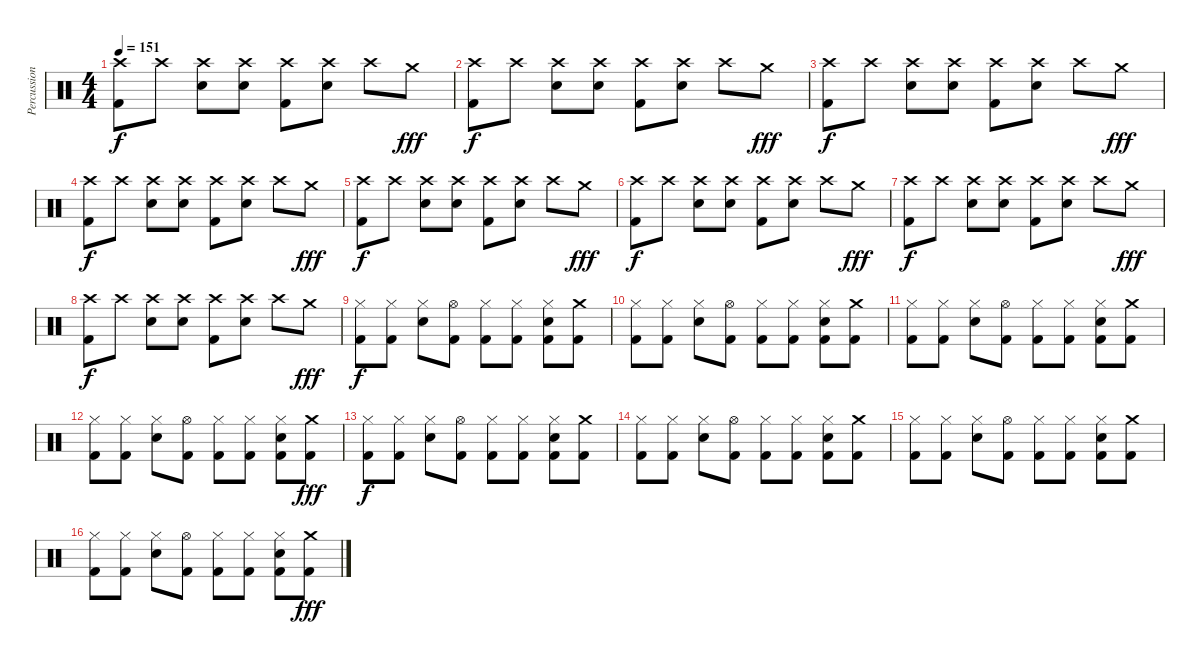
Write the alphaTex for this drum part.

\track ("Percussion" "Percussion") {instrument percussion bank 1}
\staff {score}
\articulation defaults
\ts (4 4)
\tempo 151
\clef neutral
\ks c
("Crash high (hit)" "Kick (hit) 2").8{dy f} "Crash high (hit)".8 ("Snare (hit) 2" "Crash high (hit)").8 ("Snare (hit) 2" "Crash high (hit)").8 ("Crash high (hit)" "Kick (hit) 2").8 ("Snare (hit) 2" "Crash high (hit)").8 "Crash high (hit)".8 "Crash medium (hit)".8{dy fff} |
("Crash high (hit)" "Kick (hit) 2").8{dy f} "Crash high (hit)".8 ("Snare (hit) 2" "Crash high (hit)").8 ("Snare (hit) 2" "Crash high (hit)").8 ("Crash high (hit)" "Kick (hit) 2").8 ("Snare (hit) 2" "Crash high (hit)").8 "Crash high (hit)".8 "Crash medium (hit)".8{dy fff} |
("Crash high (hit)" "Kick (hit) 2").8{dy f} "Crash high (hit)".8 ("Snare (hit) 2" "Crash high (hit)").8 ("Snare (hit) 2" "Crash high (hit)").8 ("Crash high (hit)" "Kick (hit) 2").8 ("Snare (hit) 2" "Crash high (hit)").8 "Crash high (hit)".8 "Crash medium (hit)".8{dy fff} |
("Crash high (hit)" "Kick (hit) 2").8{dy f} "Crash high (hit)".8 ("Snare (hit) 2" "Crash high (hit)").8 ("Snare (hit) 2" "Crash high (hit)").8 ("Crash high (hit)" "Kick (hit) 2").8 ("Snare (hit) 2" "Crash high (hit)").8 "Crash high (hit)".8 "Crash medium (hit)".8{dy fff} |
("Crash high (hit)" "Kick (hit) 2").8{dy f} "Crash high (hit)".8 ("Snare (hit) 2" "Crash high (hit)").8 ("Snare (hit) 2" "Crash high (hit)").8 ("Crash high (hit)" "Kick (hit) 2").8 ("Snare (hit) 2" "Crash high (hit)").8 "Crash high (hit)".8 "Crash medium (hit)".8{dy fff} |
("Crash high (hit)" "Kick (hit) 2").8{dy f} "Crash high (hit)".8 ("Snare (hit) 2" "Crash high (hit)").8 ("Snare (hit) 2" "Crash high (hit)").8 ("Crash high (hit)" "Kick (hit) 2").8 ("Snare (hit) 2" "Crash high (hit)").8 "Crash high (hit)".8 "Crash medium (hit)".8{dy fff} |
("Crash high (hit)" "Kick (hit) 2").8{dy f} "Crash high (hit)".8 ("Snare (hit) 2" "Crash high (hit)").8 ("Snare (hit) 2" "Crash high (hit)").8 ("Crash high (hit)" "Kick (hit) 2").8 ("Snare (hit) 2" "Crash high (hit)").8 "Crash high (hit)".8 "Crash medium (hit)".8{dy fff} |
("Crash high (hit)" "Kick (hit) 2").8{dy f} "Crash high (hit)".8 ("Snare (hit) 2" "Crash high (hit)").8 ("Snare (hit) 2" "Crash high (hit)").8 ("Crash high (hit)" "Kick (hit) 2").8 ("Snare (hit) 2" "Crash high (hit)").8 "Crash high (hit)".8 "Crash medium (hit)".8{dy fff} |
("Hi-Hat (closed)" "Kick (hit) 2").8{dy f} ("Hi-Hat (closed)" "Kick (hit) 2").8 ("Snare (hit) 2" "Hi-Hat (closed)").8 ("Hi-Hat (open)" "Kick (hit) 2").8 ("Hi-Hat (closed)" "Kick (hit) 2").8 ("Hi-Hat (closed)" "Kick (hit) 2").8 ("Snare (hit) 2" "Hi-Hat (closed)" "Kick (hit) 2").8 ("Crash medium (hit)" "Kick (hit) 2").8 |
("Hi-Hat (closed)" "Kick (hit) 2").8 ("Hi-Hat (closed)" "Kick (hit) 2").8 ("Snare (hit) 2" "Hi-Hat (closed)").8 ("Hi-Hat (open)" "Kick (hit) 2").8 ("Hi-Hat (closed)" "Kick (hit) 2").8 ("Hi-Hat (closed)" "Kick (hit) 2").8 ("Snare (hit) 2" "Hi-Hat (closed)" "Kick (hit) 2").8 ("Crash medium (hit)" "Kick (hit) 2").8 |
("Hi-Hat (closed)" "Kick (hit) 2").8 ("Hi-Hat (closed)" "Kick (hit) 2").8 ("Snare (hit) 2" "Hi-Hat (closed)").8 ("Hi-Hat (open)" "Kick (hit) 2").8 ("Hi-Hat (closed)" "Kick (hit) 2").8 ("Hi-Hat (closed)" "Kick (hit) 2").8 ("Snare (hit) 2" "Hi-Hat (closed)" "Kick (hit) 2").8 ("Crash medium (hit)" "Kick (hit) 2").8 |
("Hi-Hat (closed)" "Kick (hit) 2").8 ("Hi-Hat (closed)" "Kick (hit) 2").8 ("Snare (hit) 2" "Hi-Hat (closed)").8 ("Hi-Hat (open)" "Kick (hit) 2").8 ("Hi-Hat (closed)" "Kick (hit) 2").8 ("Hi-Hat (closed)" "Kick (hit) 2").8 ("Snare (hit) 2" "Hi-Hat (closed)" "Kick (hit) 2").8 ("Crash medium (hit)" "Kick (hit) 2").8{dy fff} |
("Hi-Hat (closed)" "Kick (hit) 2").8{dy f} ("Hi-Hat (closed)" "Kick (hit) 2").8 ("Snare (hit) 2" "Hi-Hat (closed)").8 ("Hi-Hat (open)" "Kick (hit) 2").8 ("Hi-Hat (closed)" "Kick (hit) 2").8 ("Hi-Hat (closed)" "Kick (hit) 2").8 ("Snare (hit) 2" "Hi-Hat (closed)" "Kick (hit) 2").8 ("Crash medium (hit)" "Kick (hit) 2").8 |
("Hi-Hat (closed)" "Kick (hit) 2").8 ("Hi-Hat (closed)" "Kick (hit) 2").8 ("Snare (hit) 2" "Hi-Hat (closed)").8 ("Hi-Hat (open)" "Kick (hit) 2").8 ("Hi-Hat (closed)" "Kick (hit) 2").8 ("Hi-Hat (closed)" "Kick (hit) 2").8 ("Snare (hit) 2" "Hi-Hat (closed)" "Kick (hit) 2").8 ("Crash medium (hit)" "Kick (hit) 2").8 |
("Hi-Hat (closed)" "Kick (hit) 2").8 ("Hi-Hat (closed)" "Kick (hit) 2").8 ("Snare (hit) 2" "Hi-Hat (closed)").8 ("Hi-Hat (open)" "Kick (hit) 2").8 ("Hi-Hat (closed)" "Kick (hit) 2").8 ("Hi-Hat (closed)" "Kick (hit) 2").8 ("Snare (hit) 2" "Hi-Hat (closed)" "Kick (hit) 2").8 ("Crash medium (hit)" "Kick (hit) 2").8 |
("Hi-Hat (closed)" "Kick (hit) 2").8 ("Hi-Hat (closed)" "Kick (hit) 2").8 ("Snare (hit) 2" "Hi-Hat (closed)").8 ("Hi-Hat (open)" "Kick (hit) 2").8 ("Hi-Hat (closed)" "Kick (hit) 2").8 ("Hi-Hat (closed)" "Kick (hit) 2").8 ("Snare (hit) 2" "Hi-Hat (closed)" "Kick (hit) 2").8 ("Crash medium (hit)" "Kick (hit) 2").8{dy fff}
